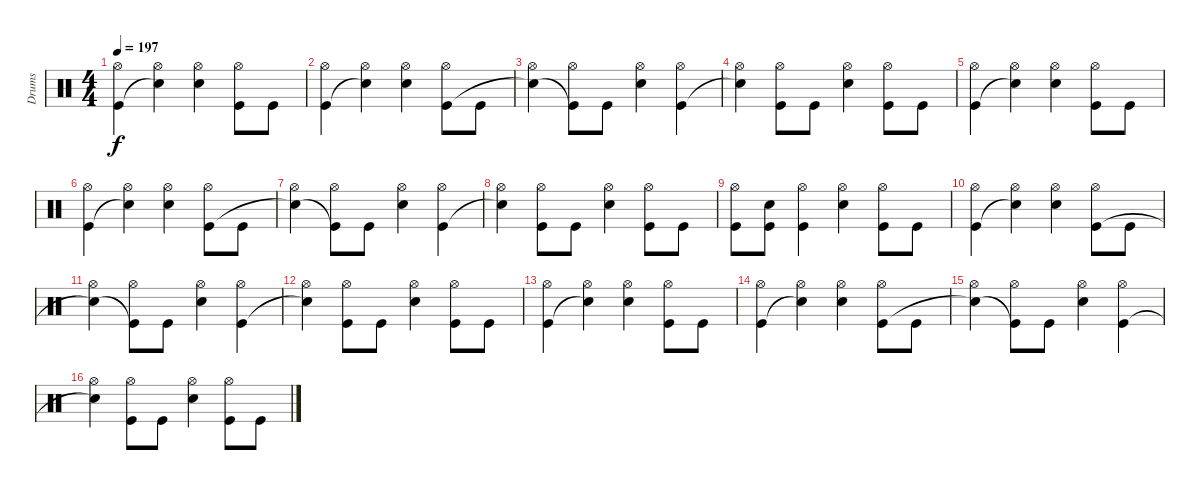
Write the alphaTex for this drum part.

\track ("Drums" "Drums") {instrument percussion}
\staff {score}
\articulation defaults
\ts (4 4)
\tempo 197
\clef neutral
\ks c
("Hi-Hat (open)" "Kick (hit)").4{dy f} ("Hi-Hat (open)" "Snare (hit)"{t}).4 ("Hi-Hat (open)" "Snare (hit) 2").4 ("Hi-Hat (open)" "Kick (hit)").8 "Kick (hit)".8 |
("Hi-Hat (open)" "Kick (hit)").4 ("Hi-Hat (open)" "Snare (hit)"{t}).4 ("Hi-Hat (open)" "Snare (hit) 2").4 ("Hi-Hat (open)" "Kick (hit)").8 "Kick (hit)".8 |
("Hi-Hat (open)" "Snare (hit)"{t}).4 ("Hi-Hat (open)" "Kick (hit)"{t}).8 "Kick (hit)".8 ("Hi-Hat (open)" "Snare (hit) 2").4 ("Hi-Hat (open)" "Kick (hit)").4 |
("Hi-Hat (open)" "Snare (hit)"{t}).4 ("Hi-Hat (open)" "Kick (hit)").8 "Kick (hit)".8 ("Hi-Hat (open)" "Snare (hit) 2").4 ("Hi-Hat (open)" "Kick (hit)").8 "Kick (hit)".8 |
("Hi-Hat (open)" "Kick (hit)").4 ("Hi-Hat (open)" "Snare (hit)"{t}).4 ("Hi-Hat (open)" "Snare (hit) 2").4 ("Hi-Hat (open)" "Kick (hit)").8 "Kick (hit)".8 |
("Hi-Hat (open)" "Kick (hit)").4 ("Hi-Hat (open)" "Snare (hit)"{t}).4 ("Hi-Hat (open)" "Snare (hit) 2").4 ("Hi-Hat (open)" "Kick (hit)").8 "Kick (hit)".8 |
("Hi-Hat (open)" "Snare (hit)"{t}).4 ("Hi-Hat (open)" "Kick (hit)"{t}).8 "Kick (hit)".8 ("Hi-Hat (open)" "Snare (hit) 2").4 ("Hi-Hat (open)" "Kick (hit)").4 |
("Hi-Hat (open)" "Snare (hit)"{t}).4 ("Hi-Hat (open)" "Kick (hit)").8 "Kick (hit)".8 ("Hi-Hat (open)" "Snare (hit) 2").4 ("Hi-Hat (open)" "Kick (hit)").8 "Kick (hit)".8 |
("Hi-Hat (open)" "Kick (hit)").8 ("Snare (hit) 2" "Kick (hit)").8 ("Hi-Hat (open)" "Kick (hit)").4 ("Hi-Hat (open)" "Snare (hit) 2").4 ("Hi-Hat (open)" "Kick (hit)").8 "Kick (hit)".8 |
("Hi-Hat (open)" "Kick (hit)").4 ("Hi-Hat (open)" "Snare (hit)"{t}).4 ("Hi-Hat (open)" "Snare (hit) 2").4 ("Hi-Hat (open)" "Kick (hit)").8 "Kick (hit)".8 |
("Hi-Hat (open)" "Snare (hit)"{t}).4 ("Hi-Hat (open)" "Kick (hit)"{t}).8 "Kick (hit)".8 ("Hi-Hat (open)" "Snare (hit) 2").4 ("Hi-Hat (open)" "Kick (hit)").4 |
("Hi-Hat (open)" "Snare (hit)"{t}).4 ("Hi-Hat (open)" "Kick (hit)").8 "Kick (hit)".8 ("Hi-Hat (open)" "Snare (hit) 2").4 ("Hi-Hat (open)" "Kick (hit)").8 "Kick (hit)".8 |
("Hi-Hat (open)" "Kick (hit)").4 ("Hi-Hat (open)" "Snare (hit)"{t}).4 ("Hi-Hat (open)" "Snare (hit) 2").4 ("Hi-Hat (open)" "Kick (hit)").8 "Kick (hit)".8 |
("Hi-Hat (open)" "Kick (hit)").4 ("Hi-Hat (open)" "Snare (hit)"{t}).4 ("Hi-Hat (open)" "Snare (hit) 2").4 ("Hi-Hat (open)" "Kick (hit)").8 "Kick (hit)".8 |
("Hi-Hat (open)" "Snare (hit)"{t}).4 ("Hi-Hat (open)" "Kick (hit)"{t}).8 "Kick (hit)".8 ("Hi-Hat (open)" "Snare (hit) 2").4 ("Hi-Hat (open)" "Kick (hit)").4 |
("Hi-Hat (open)" "Snare (hit)"{t}).4 ("Hi-Hat (open)" "Kick (hit)").8 "Kick (hit)".8 ("Hi-Hat (open)" "Snare (hit) 2").4 ("Hi-Hat (open)" "Kick (hit)").8 "Kick (hit)".8
